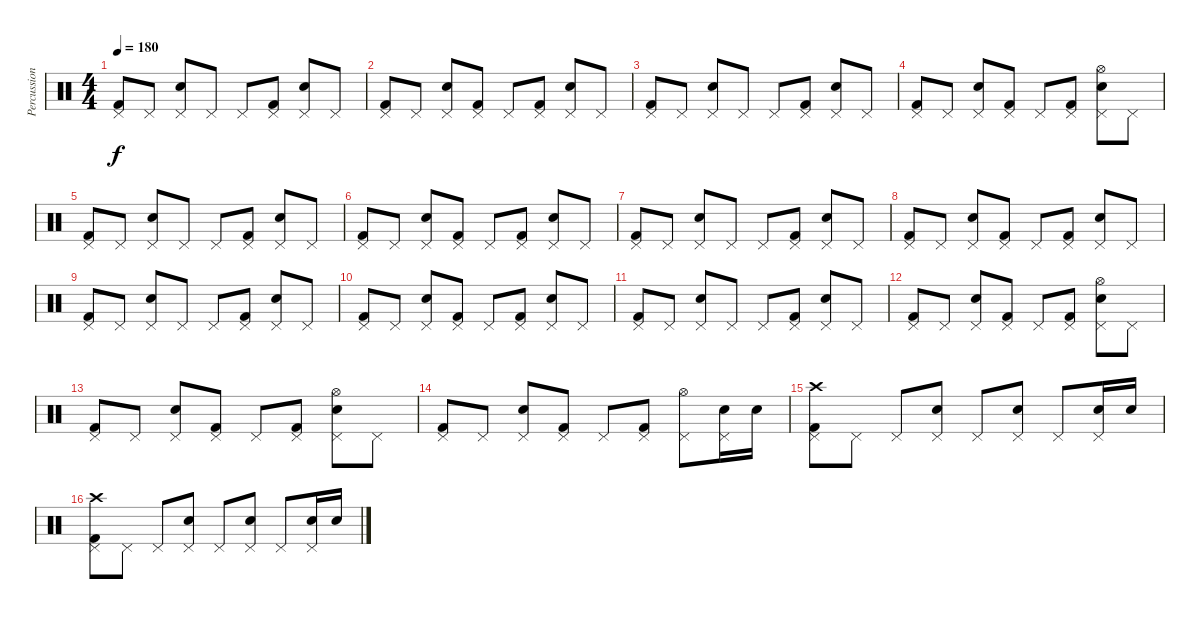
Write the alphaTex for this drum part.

\track ("Percussions" "Percussion") {instrument percussion}
\staff {score}
\articulation defaults
\ts (4 4)
\tempo 180
\clef neutral
\ks c
("Pedal Hi-Hat (hit)" "Kick (hit) 2").8{dy f} "Pedal Hi-Hat (hit)".8 ("Pedal Hi-Hat (hit)" "Electric Snare (hit)").8 "Pedal Hi-Hat (hit)".8 "Pedal Hi-Hat (hit)".8 ("Pedal Hi-Hat (hit)" "Kick (hit) 2").8 ("Pedal Hi-Hat (hit)" "Electric Snare (hit)").8 "Pedal Hi-Hat (hit)".8 |
("Pedal Hi-Hat (hit)" "Kick (hit) 2").8 "Pedal Hi-Hat (hit)".8 ("Pedal Hi-Hat (hit)" "Electric Snare (hit)").8 ("Pedal Hi-Hat (hit)" "Kick (hit) 2").8 "Pedal Hi-Hat (hit)".8 ("Pedal Hi-Hat (hit)" "Kick (hit) 2").8 ("Pedal Hi-Hat (hit)" "Electric Snare (hit)").8 "Pedal Hi-Hat (hit)".8 |
("Pedal Hi-Hat (hit)" "Kick (hit) 2").8 "Pedal Hi-Hat (hit)".8 ("Pedal Hi-Hat (hit)" "Electric Snare (hit)").8 "Pedal Hi-Hat (hit)".8 "Pedal Hi-Hat (hit)".8 ("Pedal Hi-Hat (hit)" "Kick (hit) 2").8 ("Pedal Hi-Hat (hit)" "Electric Snare (hit)").8 "Pedal Hi-Hat (hit)".8 |
("Pedal Hi-Hat (hit)" "Kick (hit) 2").8 "Pedal Hi-Hat (hit)".8 ("Pedal Hi-Hat (hit)" "Electric Snare (hit)").8 ("Pedal Hi-Hat (hit)" "Kick (hit) 2").8 "Pedal Hi-Hat (hit)".8 ("Pedal Hi-Hat (hit)" "Kick (hit) 2").8 ("Pedal Hi-Hat (hit)" "Hi-Hat (open)" "Electric Snare (hit)").8 "Pedal Hi-Hat (hit)".8 |
("Pedal Hi-Hat (hit)" "Kick (hit) 2").8 "Pedal Hi-Hat (hit)".8 ("Pedal Hi-Hat (hit)" "Electric Snare (hit)").8 "Pedal Hi-Hat (hit)".8 "Pedal Hi-Hat (hit)".8 ("Pedal Hi-Hat (hit)" "Kick (hit) 2").8 ("Pedal Hi-Hat (hit)" "Electric Snare (hit)").8 "Pedal Hi-Hat (hit)".8 |
("Pedal Hi-Hat (hit)" "Kick (hit) 2").8 "Pedal Hi-Hat (hit)".8 ("Pedal Hi-Hat (hit)" "Electric Snare (hit)").8 ("Pedal Hi-Hat (hit)" "Kick (hit) 2").8 "Pedal Hi-Hat (hit)".8 ("Pedal Hi-Hat (hit)" "Kick (hit) 2").8 ("Pedal Hi-Hat (hit)" "Electric Snare (hit)").8 "Pedal Hi-Hat (hit)".8 |
("Pedal Hi-Hat (hit)" "Kick (hit) 2").8 "Pedal Hi-Hat (hit)".8 ("Pedal Hi-Hat (hit)" "Electric Snare (hit)").8 "Pedal Hi-Hat (hit)".8 "Pedal Hi-Hat (hit)".8 ("Pedal Hi-Hat (hit)" "Kick (hit) 2").8 ("Pedal Hi-Hat (hit)" "Electric Snare (hit)").8 "Pedal Hi-Hat (hit)".8 |
("Pedal Hi-Hat (hit)" "Kick (hit) 2").8 "Pedal Hi-Hat (hit)".8 ("Pedal Hi-Hat (hit)" "Electric Snare (hit)").8 ("Pedal Hi-Hat (hit)" "Kick (hit) 2").8 "Pedal Hi-Hat (hit)".8 ("Pedal Hi-Hat (hit)" "Kick (hit) 2").8 ("Pedal Hi-Hat (hit)" "Electric Snare (hit)").8 "Pedal Hi-Hat (hit)".8 |
("Pedal Hi-Hat (hit)" "Kick (hit) 2").8 "Pedal Hi-Hat (hit)".8 ("Pedal Hi-Hat (hit)" "Electric Snare (hit)").8 "Pedal Hi-Hat (hit)".8 "Pedal Hi-Hat (hit)".8 ("Pedal Hi-Hat (hit)" "Kick (hit) 2").8 ("Pedal Hi-Hat (hit)" "Electric Snare (hit)").8 "Pedal Hi-Hat (hit)".8 |
("Pedal Hi-Hat (hit)" "Kick (hit) 2").8 "Pedal Hi-Hat (hit)".8 ("Pedal Hi-Hat (hit)" "Electric Snare (hit)").8 ("Pedal Hi-Hat (hit)" "Kick (hit) 2").8 "Pedal Hi-Hat (hit)".8 ("Pedal Hi-Hat (hit)" "Kick (hit) 2").8 ("Pedal Hi-Hat (hit)" "Electric Snare (hit)").8 "Pedal Hi-Hat (hit)".8 |
("Pedal Hi-Hat (hit)" "Kick (hit) 2").8 "Pedal Hi-Hat (hit)".8 ("Pedal Hi-Hat (hit)" "Electric Snare (hit)").8 "Pedal Hi-Hat (hit)".8 "Pedal Hi-Hat (hit)".8 ("Pedal Hi-Hat (hit)" "Kick (hit) 2").8 ("Pedal Hi-Hat (hit)" "Electric Snare (hit)").8 "Pedal Hi-Hat (hit)".8 |
("Pedal Hi-Hat (hit)" "Kick (hit) 2").8 "Pedal Hi-Hat (hit)".8 ("Pedal Hi-Hat (hit)" "Electric Snare (hit)").8 ("Pedal Hi-Hat (hit)" "Kick (hit) 2").8 "Pedal Hi-Hat (hit)".8 ("Pedal Hi-Hat (hit)" "Kick (hit) 2").8 ("Pedal Hi-Hat (hit)" "Hi-Hat (open)" "Electric Snare (hit)").8 "Pedal Hi-Hat (hit)".8 |
("Pedal Hi-Hat (hit)" "Kick (hit) 2").8 "Pedal Hi-Hat (hit)".8 ("Pedal Hi-Hat (hit)" "Electric Snare (hit)").8 ("Pedal Hi-Hat (hit)" "Kick (hit) 2").8 "Pedal Hi-Hat (hit)".8 ("Pedal Hi-Hat (hit)" "Kick (hit) 2").8 ("Pedal Hi-Hat (hit)" "Hi-Hat (open)" "Electric Snare (hit)").8 "Pedal Hi-Hat (hit)".8 |
("Pedal Hi-Hat (hit)" "Kick (hit) 2").8 "Pedal Hi-Hat (hit)".8 ("Pedal Hi-Hat (hit)" "Electric Snare (hit)").8 ("Pedal Hi-Hat (hit)" "Kick (hit) 2").8 "Pedal Hi-Hat (hit)".8 ("Pedal Hi-Hat (hit)" "Kick (hit) 2").8 ("Pedal Hi-Hat (hit)" "Hi-Hat (open)").8 ("Pedal Hi-Hat (hit)" "Electric Snare (hit)").16 "Electric Snare (hit)".16 |
("Pedal Hi-Hat (hit)" "Crash high (hit)" "Kick (hit) 2").8 "Pedal Hi-Hat (hit)".8 "Pedal Hi-Hat (hit)".8 ("Pedal Hi-Hat (hit)" "Electric Snare (hit)").8 "Pedal Hi-Hat (hit)".8 ("Pedal Hi-Hat (hit)" "Electric Snare (hit)").8 "Pedal Hi-Hat (hit)".8 ("Pedal Hi-Hat (hit)" "Electric Snare (hit)").16 "Electric Snare (hit)".16 |
("Pedal Hi-Hat (hit)" "Crash high (hit)" "Kick (hit) 2").8 "Pedal Hi-Hat (hit)".8 "Pedal Hi-Hat (hit)".8 ("Pedal Hi-Hat (hit)" "Electric Snare (hit)").8 "Pedal Hi-Hat (hit)".8 ("Pedal Hi-Hat (hit)" "Electric Snare (hit)").8 "Pedal Hi-Hat (hit)".8 ("Pedal Hi-Hat (hit)" "Electric Snare (hit)").16 "Electric Snare (hit)".16
